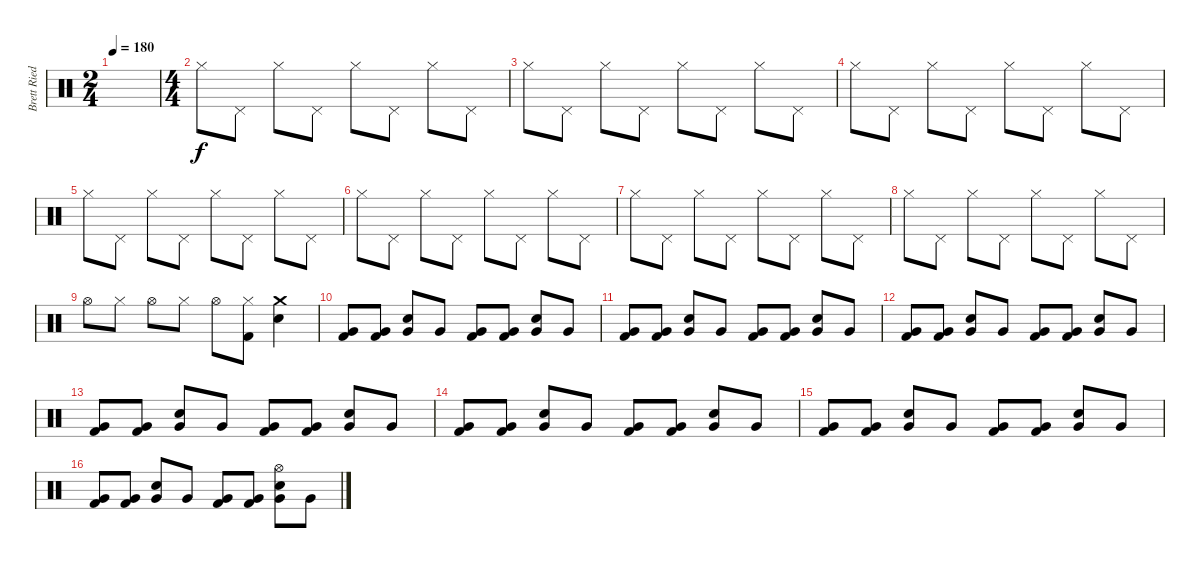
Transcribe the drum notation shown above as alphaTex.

\track ("Brett Ried" "Brett Ried") {instrument percussion}
\staff {score}
\articulation defaults
\ts (2 4)
\tempo 180
\clef neutral
\ks c
|
\ts (4 4)
"Hi-Hat (closed)".8 "Pedal Hi-Hat (hit)".8 "Hi-Hat (closed)".8 "Pedal Hi-Hat (hit)".8 "Hi-Hat (closed)".8 "Pedal Hi-Hat (hit)".8 "Hi-Hat (closed)".8 "Pedal Hi-Hat (hit)".8 |
"Hi-Hat (closed)".8 "Pedal Hi-Hat (hit)".8 "Hi-Hat (closed)".8 "Pedal Hi-Hat (hit)".8 "Hi-Hat (closed)".8 "Pedal Hi-Hat (hit)".8 "Hi-Hat (closed)".8 "Pedal Hi-Hat (hit)".8 |
"Hi-Hat (closed)".8 "Pedal Hi-Hat (hit)".8 "Hi-Hat (closed)".8 "Pedal Hi-Hat (hit)".8 "Hi-Hat (closed)".8 "Pedal Hi-Hat (hit)".8 "Hi-Hat (closed)".8 "Pedal Hi-Hat (hit)".8 |
"Hi-Hat (closed)".8 "Pedal Hi-Hat (hit)".8 "Hi-Hat (closed)".8 "Pedal Hi-Hat (hit)".8 "Hi-Hat (closed)".8 "Pedal Hi-Hat (hit)".8 "Hi-Hat (closed)".8 "Pedal Hi-Hat (hit)".8 |
"Hi-Hat (closed)".8 "Pedal Hi-Hat (hit)".8 "Hi-Hat (closed)".8 "Pedal Hi-Hat (hit)".8 "Hi-Hat (closed)".8 "Pedal Hi-Hat (hit)".8 "Hi-Hat (closed)".8 "Pedal Hi-Hat (hit)".8 |
"Hi-Hat (closed)".8 "Pedal Hi-Hat (hit)".8 "Hi-Hat (closed)".8 "Pedal Hi-Hat (hit)".8 "Hi-Hat (closed)".8 "Pedal Hi-Hat (hit)".8 "Hi-Hat (closed)".8 "Pedal Hi-Hat (hit)".8 |
"Hi-Hat (closed)".8 "Pedal Hi-Hat (hit)".8 "Hi-Hat (closed)".8 "Pedal Hi-Hat (hit)".8 "Hi-Hat (closed)".8 "Pedal Hi-Hat (hit)".8 "Hi-Hat (closed)".8 "Pedal Hi-Hat (hit)".8 |
"Hi-Hat (open)".8 "Hi-Hat (closed)".8 "Hi-Hat (open)".8 "Hi-Hat (closed)".8 "Hi-Hat (open)".8 ("Hi-Hat (closed)" "Kick (hit) 2").8 ("Crash medium (hit)" "Snare (hit) 2").4 |
("Very Low Tom (hit)" "Kick (hit) 2").8 ("Very Low Tom (hit)" "Kick (hit) 2").8 ("Very Low Tom (hit)" "Snare (hit) 2").8 "Very Low Tom (hit)".8 ("Very Low Tom (hit)" "Kick (hit) 2").8 ("Very Low Tom (hit)" "Kick (hit) 2").8 ("Very Low Tom (hit)" "Snare (hit) 2").8 "Very Low Tom (hit)".8 |
("Very Low Tom (hit)" "Kick (hit) 2").8 ("Very Low Tom (hit)" "Kick (hit) 2").8 ("Very Low Tom (hit)" "Snare (hit) 2").8 "Very Low Tom (hit)".8 ("Very Low Tom (hit)" "Kick (hit) 2").8 ("Very Low Tom (hit)" "Kick (hit) 2").8 ("Very Low Tom (hit)" "Snare (hit) 2").8 "Very Low Tom (hit)".8 |
("Very Low Tom (hit)" "Kick (hit) 2").8 ("Very Low Tom (hit)" "Kick (hit) 2").8 ("Very Low Tom (hit)" "Snare (hit) 2").8 "Very Low Tom (hit)".8 ("Very Low Tom (hit)" "Kick (hit) 2").8 ("Very Low Tom (hit)" "Kick (hit) 2").8 ("Very Low Tom (hit)" "Snare (hit) 2").8 "Very Low Tom (hit)".8 |
("Very Low Tom (hit)" "Kick (hit) 2").8 ("Very Low Tom (hit)" "Kick (hit) 2").8 ("Very Low Tom (hit)" "Snare (hit) 2").8 "Very Low Tom (hit)".8 ("Very Low Tom (hit)" "Kick (hit) 2").8 ("Very Low Tom (hit)" "Kick (hit) 2").8 ("Very Low Tom (hit)" "Snare (hit) 2").8 "Very Low Tom (hit)".8 |
("Very Low Tom (hit)" "Kick (hit) 2").8 ("Very Low Tom (hit)" "Kick (hit) 2").8 ("Very Low Tom (hit)" "Snare (hit) 2").8 "Very Low Tom (hit)".8 ("Very Low Tom (hit)" "Kick (hit) 2").8 ("Very Low Tom (hit)" "Kick (hit) 2").8 ("Very Low Tom (hit)" "Snare (hit) 2").8 "Very Low Tom (hit)".8 |
("Very Low Tom (hit)" "Kick (hit) 2").8 ("Very Low Tom (hit)" "Kick (hit) 2").8 ("Very Low Tom (hit)" "Snare (hit) 2").8 "Very Low Tom (hit)".8 ("Very Low Tom (hit)" "Kick (hit) 2").8 ("Very Low Tom (hit)" "Kick (hit) 2").8 ("Very Low Tom (hit)" "Snare (hit) 2").8 "Very Low Tom (hit)".8 |
("Very Low Tom (hit)" "Kick (hit) 2").8 ("Very Low Tom (hit)" "Kick (hit) 2").8 ("Very Low Tom (hit)" "Snare (hit) 2").8 "Very Low Tom (hit)".8 ("Very Low Tom (hit)" "Kick (hit) 2").8 ("Very Low Tom (hit)" "Kick (hit) 2").8 ("Hi-Hat (open)" "Very Low Tom (hit)" "Snare (hit) 2").8 "Very Low Tom (hit)".8
